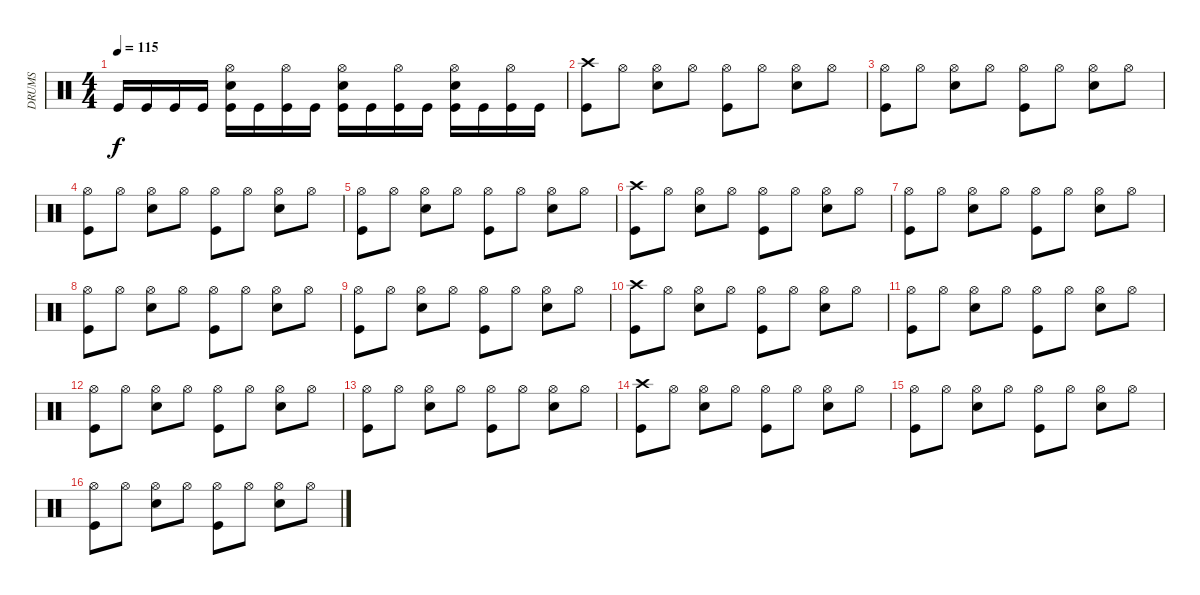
\track ("DRUMS" "DRUMS") {instrument percussion}
\staff {score}
\articulation defaults
\ts (4 4)
\tempo 115
\clef neutral
\ks c "Kick (hit)".16{dy f} "Kick (hit)".16 "Kick (hit)".16 "Kick (hit)".16
("Hi-Hat (open)" "Snare (hit) 2" "Kick (hit)").16 "Kick (hit)".16 ("Hi-Hat (open)" "Kick (hit)").16 "Kick (hit)".16 ("Hi-Hat (open)" "Snare (hit) 2" "Kick (hit)").16 "Kick (hit)".16 ("Hi-Hat (open)" "Kick (hit)").16 "Kick (hit)".16 ("Hi-Hat (open)" "Snare (hit) 2" "Kick (hit)").16 "Kick (hit)".16 ("Hi-Hat (open)" "Kick (hit)").16 "Kick (hit)".16 |
("Crash high (hit)" "Kick (hit)").8 "Hi-Hat (open)".8 ("Hi-Hat (open)" "Snare (hit) 2").8 "Hi-Hat (open)".8 ("Hi-Hat (open)" "Kick (hit)").8 "Hi-Hat (open)".8 ("Hi-Hat (open)" "Snare (hit) 2").8 "Hi-Hat (open)".8 |
("Hi-Hat (open)" "Kick (hit)").8 "Hi-Hat (open)".8 ("Hi-Hat (open)" "Snare (hit) 2").8 "Hi-Hat (open)".8 ("Hi-Hat (open)" "Kick (hit)").8 "Hi-Hat (open)".8 ("Hi-Hat (open)" "Snare (hit) 2").8 "Hi-Hat (open)".8 |
("Hi-Hat (open)" "Kick (hit)").8 "Hi-Hat (open)".8 ("Hi-Hat (open)" "Snare (hit) 2").8 "Hi-Hat (open)".8 ("Hi-Hat (open)" "Kick (hit)").8 "Hi-Hat (open)".8 ("Hi-Hat (open)" "Snare (hit) 2").8 "Hi-Hat (open)".8 |
("Hi-Hat (open)" "Kick (hit)").8 "Hi-Hat (open)".8 ("Hi-Hat (open)" "Snare (hit) 2").8 "Hi-Hat (open)".8 ("Hi-Hat (open)" "Kick (hit)").8 "Hi-Hat (open)".8 ("Hi-Hat (open)" "Snare (hit) 2").8 "Hi-Hat (open)".8 |
("Crash high (hit)" "Kick (hit)").8 "Hi-Hat (open)".8 ("Hi-Hat (open)" "Snare (hit) 2").8 "Hi-Hat (open)".8 ("Hi-Hat (open)" "Kick (hit)").8 "Hi-Hat (open)".8 ("Hi-Hat (open)" "Snare (hit) 2").8 "Hi-Hat (open)".8 |
("Hi-Hat (open)" "Kick (hit)").8 "Hi-Hat (open)".8 ("Hi-Hat (open)" "Snare (hit) 2").8 "Hi-Hat (open)".8 ("Hi-Hat (open)" "Kick (hit)").8 "Hi-Hat (open)".8 ("Hi-Hat (open)" "Snare (hit) 2").8 "Hi-Hat (open)".8 |
("Hi-Hat (open)" "Kick (hit)").8 "Hi-Hat (open)".8 ("Hi-Hat (open)" "Snare (hit) 2").8 "Hi-Hat (open)".8 ("Hi-Hat (open)" "Kick (hit)").8 "Hi-Hat (open)".8 ("Hi-Hat (open)" "Snare (hit) 2").8 "Hi-Hat (open)".8 |
("Hi-Hat (open)" "Kick (hit)").8 "Hi-Hat (open)".8 ("Hi-Hat (open)" "Snare (hit) 2").8 "Hi-Hat (open)".8 ("Hi-Hat (open)" "Kick (hit)").8 "Hi-Hat (open)".8 ("Hi-Hat (open)" "Snare (hit) 2").8 "Hi-Hat (open)".8 |
("Crash high (hit)" "Kick (hit)").8 "Hi-Hat (open)".8 ("Hi-Hat (open)" "Snare (hit) 2").8 "Hi-Hat (open)".8 ("Hi-Hat (open)" "Kick (hit)").8 "Hi-Hat (open)".8 ("Hi-Hat (open)" "Snare (hit) 2").8 "Hi-Hat (open)".8 |
("Hi-Hat (open)" "Kick (hit)").8 "Hi-Hat (open)".8 ("Hi-Hat (open)" "Snare (hit) 2").8 "Hi-Hat (open)".8 ("Hi-Hat (open)" "Kick (hit)").8 "Hi-Hat (open)".8 ("Hi-Hat (open)" "Snare (hit) 2").8 "Hi-Hat (open)".8 |
("Hi-Hat (open)" "Kick (hit)").8 "Hi-Hat (open)".8 ("Hi-Hat (open)" "Snare (hit) 2").8 "Hi-Hat (open)".8 ("Hi-Hat (open)" "Kick (hit)").8 "Hi-Hat (open)".8 ("Hi-Hat (open)" "Snare (hit) 2").8 "Hi-Hat (open)".8 |
("Hi-Hat (open)" "Kick (hit)").8 "Hi-Hat (open)".8 ("Hi-Hat (open)" "Snare (hit) 2").8 "Hi-Hat (open)".8 ("Hi-Hat (open)" "Kick (hit)").8 "Hi-Hat (open)".8 ("Hi-Hat (open)" "Snare (hit) 2").8 "Hi-Hat (open)".8 |
("Crash high (hit)" "Kick (hit)").8 "Hi-Hat (open)".8 ("Hi-Hat (open)" "Snare (hit) 2").8 "Hi-Hat (open)".8 ("Hi-Hat (open)" "Kick (hit)").8 "Hi-Hat (open)".8 ("Hi-Hat (open)" "Snare (hit) 2").8 "Hi-Hat (open)".8 |
("Hi-Hat (open)" "Kick (hit)").8 "Hi-Hat (open)".8 ("Hi-Hat (open)" "Snare (hit) 2").8 "Hi-Hat (open)".8 ("Hi-Hat (open)" "Kick (hit)").8 "Hi-Hat (open)".8 ("Hi-Hat (open)" "Snare (hit) 2").8 "Hi-Hat (open)".8 |
("Hi-Hat (open)" "Kick (hit)").8 "Hi-Hat (open)".8 ("Hi-Hat (open)" "Snare (hit) 2").8 "Hi-Hat (open)".8 ("Hi-Hat (open)" "Kick (hit)").8 "Hi-Hat (open)".8 ("Hi-Hat (open)" "Snare (hit) 2").8 "Hi-Hat (open)".8
